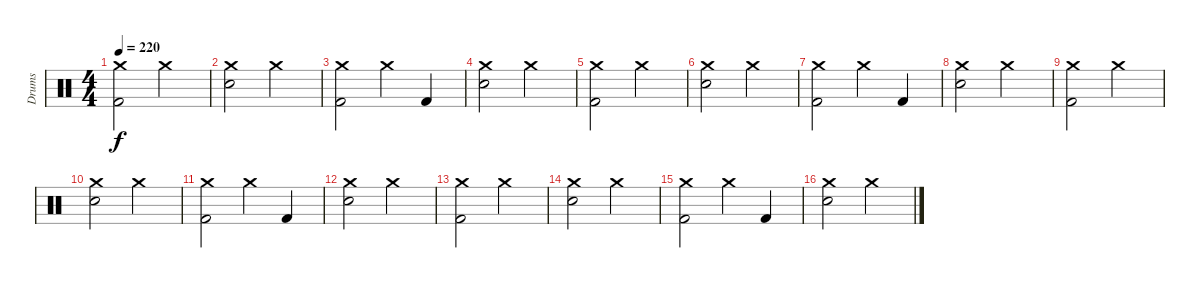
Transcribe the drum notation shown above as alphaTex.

\track ("Drums" "Drums") {instrument percussion}
\staff {score}
\articulation defaults
\ts (4 4)
\tempo 220
\clef neutral
\ks c
("Crash medium (hit)" "Kick (hit) 2").2{dy f} "Crash medium (hit)".2 |
("Crash medium (hit)" "Electric Snare (hit)").2 "Crash medium (hit)".2 |
("Crash medium (hit)" "Kick (hit) 2").2 "Crash medium (hit)".4 "Kick (hit) 2".4 |
("Crash medium (hit)" "Electric Snare (hit)").2 "Crash medium (hit)".2 |
("Crash medium (hit)" "Kick (hit) 2").2 "Crash medium (hit)".2 |
("Crash medium (hit)" "Electric Snare (hit)").2 "Crash medium (hit)".2 |
("Crash medium (hit)" "Kick (hit) 2").2 "Crash medium (hit)".4 "Kick (hit) 2".4 |
("Crash medium (hit)" "Electric Snare (hit)").2 "Crash medium (hit)".2 |
("Crash medium (hit)" "Kick (hit) 2").2 "Crash medium (hit)".2 |
("Crash medium (hit)" "Electric Snare (hit)").2 "Crash medium (hit)".2 |
("Crash medium (hit)" "Kick (hit) 2").2 "Crash medium (hit)".4 "Kick (hit) 2".4 |
("Crash medium (hit)" "Electric Snare (hit)").2 "Crash medium (hit)".2 |
("Crash medium (hit)" "Kick (hit) 2").2 "Crash medium (hit)".2 |
("Crash medium (hit)" "Electric Snare (hit)").2 "Crash medium (hit)".2 |
("Crash medium (hit)" "Kick (hit) 2").2 "Crash medium (hit)".4 "Kick (hit) 2".4 |
("Crash medium (hit)" "Electric Snare (hit)").2 "Crash medium (hit)".2
